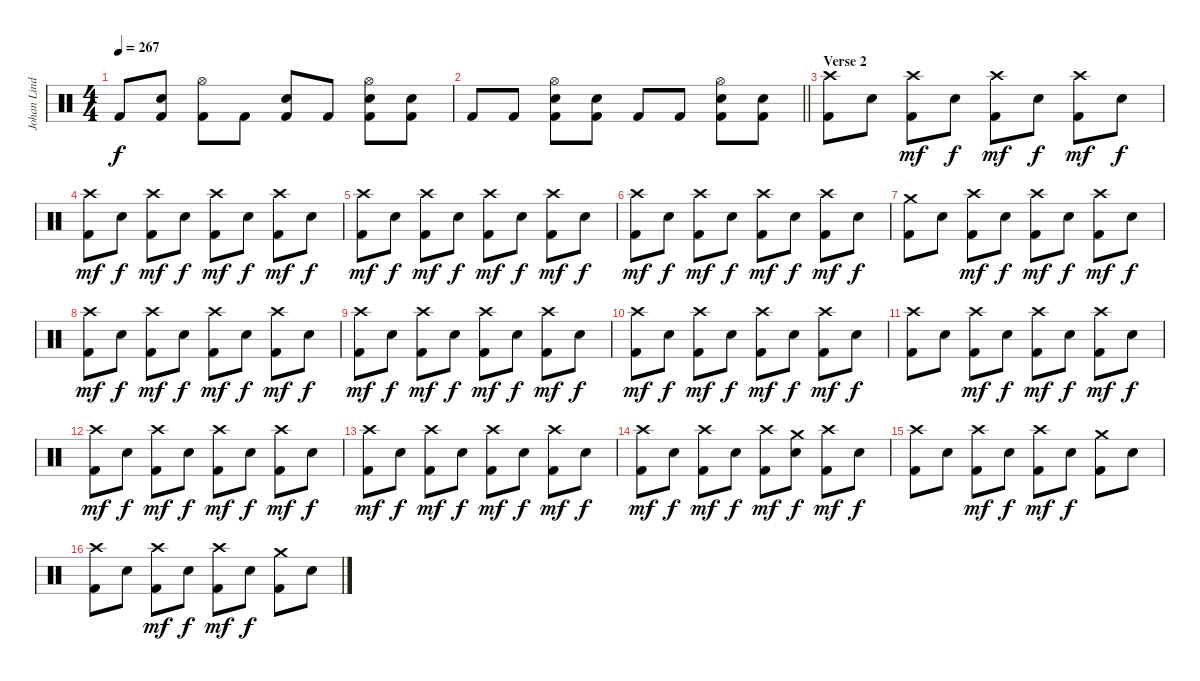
\track ("Johan Lindstrand" "Johan Lind") {instrument percussion}
\staff {score}
\articulation defaults
\ts (4 4)
\tempo 267
\clef neutral
\ks c "Kick (hit) 2".8{dy f}
("Electric Snare (hit)" "Kick (hit) 2").8 ("Hi-Hat (open)" "Kick (hit) 2").8 "Kick (hit) 2".8 ("Electric Snare (hit)" "Kick (hit) 2").8 "Kick (hit) 2".8 ("Hi-Hat (open)" "Electric Snare (hit)" "Kick (hit) 2").8 ("Electric Snare (hit)" "Kick (hit) 2").8 |
\barLineRight lightlight "Kick (hit) 2".8 "Kick (hit) 2".8
("Hi-Hat (open)" "Electric Snare (hit)" "Kick (hit) 2").8 ("Electric Snare (hit)" "Kick (hit) 2").8 "Kick (hit) 2".8 "Kick (hit) 2".8 ("Hi-Hat (open)" "Electric Snare (hit)" "Kick (hit) 2").8 ("Electric Snare (hit)" "Kick (hit) 2").8 |
\section ("" "Verse 2")
("Crash high (hit)" "Kick (hit) 2").8 "Electric Snare (hit)".8 ("Crash high (hit)" "Kick (hit) 2").8{dy mf} "Electric Snare (hit)".8{dy f} ("Crash high (hit)" "Kick (hit) 2").8{dy mf} "Electric Snare (hit)".8{dy f} ("Crash high (hit)" "Kick (hit) 2").8{dy mf} "Electric Snare (hit)".8{dy f} |
("Crash high (hit)" "Kick (hit) 2").8{dy mf} "Electric Snare (hit)".8{dy f} ("Crash high (hit)" "Kick (hit) 2").8{dy mf} "Electric Snare (hit)".8{dy f} ("Crash high (hit)" "Kick (hit) 2").8{dy mf} "Electric Snare (hit)".8{dy f} ("Crash high (hit)" "Kick (hit) 2").8{dy mf} "Electric Snare (hit)".8{dy f} |
("Crash high (hit)" "Kick (hit) 2").8{dy mf} "Electric Snare (hit)".8{dy f} ("Crash high (hit)" "Kick (hit) 2").8{dy mf} "Electric Snare (hit)".8{dy f} ("Crash high (hit)" "Kick (hit) 2").8{dy mf} "Electric Snare (hit)".8{dy f} ("Crash high (hit)" "Kick (hit) 2").8{dy mf} "Electric Snare (hit)".8{dy f} |
("Crash high (hit)" "Kick (hit) 2").8{dy mf} "Electric Snare (hit)".8{dy f} ("Crash high (hit)" "Kick (hit) 2").8{dy mf} "Electric Snare (hit)".8{dy f} ("Crash high (hit)" "Kick (hit) 2").8{dy mf} "Electric Snare (hit)".8{dy f} ("Crash high (hit)" "Kick (hit) 2").8{dy mf} "Electric Snare (hit)".8{dy f} |
("Crash medium (hit)" "Kick (hit) 2").8 "Electric Snare (hit)".8 ("Crash high (hit)" "Kick (hit) 2").8{dy mf} "Electric Snare (hit)".8{dy f} ("Crash high (hit)" "Kick (hit) 2").8{dy mf} "Electric Snare (hit)".8{dy f} ("Crash high (hit)" "Kick (hit) 2").8{dy mf} "Electric Snare (hit)".8{dy f} |
("Crash high (hit)" "Kick (hit) 2").8{dy mf} "Electric Snare (hit)".8{dy f} ("Crash high (hit)" "Kick (hit) 2").8{dy mf} "Electric Snare (hit)".8{dy f} ("Crash high (hit)" "Kick (hit) 2").8{dy mf} "Electric Snare (hit)".8{dy f} ("Crash high (hit)" "Kick (hit) 2").8{dy mf} "Electric Snare (hit)".8{dy f} |
("Crash high (hit)" "Kick (hit) 2").8{dy mf} "Electric Snare (hit)".8{dy f} ("Crash high (hit)" "Kick (hit) 2").8{dy mf} "Electric Snare (hit)".8{dy f} ("Crash high (hit)" "Kick (hit) 2").8{dy mf} "Electric Snare (hit)".8{dy f} ("Crash high (hit)" "Kick (hit) 2").8{dy mf} "Electric Snare (hit)".8{dy f} |
("Crash high (hit)" "Kick (hit) 2").8{dy mf} "Electric Snare (hit)".8{dy f} ("Crash high (hit)" "Kick (hit) 2").8{dy mf} "Electric Snare (hit)".8{dy f} ("Crash high (hit)" "Kick (hit) 2").8{dy mf} "Electric Snare (hit)".8{dy f} ("Crash high (hit)" "Kick (hit) 2").8{dy mf} "Electric Snare (hit)".8{dy f} |
("Crash high (hit)" "Kick (hit) 2").8 "Electric Snare (hit)".8 ("Crash high (hit)" "Kick (hit) 2").8{dy mf} "Electric Snare (hit)".8{dy f} ("Crash high (hit)" "Kick (hit) 2").8{dy mf} "Electric Snare (hit)".8{dy f} ("Crash high (hit)" "Kick (hit) 2").8{dy mf} "Electric Snare (hit)".8{dy f} |
("Crash high (hit)" "Kick (hit) 2").8{dy mf} "Electric Snare (hit)".8{dy f} ("Crash high (hit)" "Kick (hit) 2").8{dy mf} "Electric Snare (hit)".8{dy f} ("Crash high (hit)" "Kick (hit) 2").8{dy mf} "Electric Snare (hit)".8{dy f} ("Crash high (hit)" "Kick (hit) 2").8{dy mf} "Electric Snare (hit)".8{dy f} |
("Crash high (hit)" "Kick (hit) 2").8{dy mf} "Electric Snare (hit)".8{dy f} ("Crash high (hit)" "Kick (hit) 2").8{dy mf} "Electric Snare (hit)".8{dy f} ("Crash high (hit)" "Kick (hit) 2").8{dy mf} "Electric Snare (hit)".8{dy f} ("Crash high (hit)" "Kick (hit) 2").8{dy mf} "Electric Snare (hit)".8{dy f} |
("Crash high (hit)" "Kick (hit) 2").8{dy mf} "Electric Snare (hit)".8{dy f} ("Crash high (hit)" "Kick (hit) 2").8{dy mf} "Electric Snare (hit)".8{dy f} ("Crash high (hit)" "Kick (hit) 2").8{dy mf} ("Crash medium (hit)" "Electric Snare (hit)").8{dy f} ("Crash high (hit)" "Kick (hit) 2").8{dy mf} "Electric Snare (hit)".8{dy f} |
("Crash high (hit)" "Kick (hit) 2").8 "Electric Snare (hit)".8 ("Crash high (hit)" "Kick (hit) 2").8{dy mf} "Electric Snare (hit)".8{dy f} ("Crash high (hit)" "Kick (hit) 2").8{dy mf} "Electric Snare (hit)".8{dy f} ("Crash medium (hit)" "Kick (hit) 2").8 "Electric Snare (hit)".8 |
("Crash high (hit)" "Kick (hit) 2").8 "Electric Snare (hit)".8 ("Crash high (hit)" "Kick (hit) 2").8{dy mf} "Electric Snare (hit)".8{dy f} ("Crash high (hit)" "Kick (hit) 2").8{dy mf} "Electric Snare (hit)".8{dy f} ("Crash medium (hit)" "Kick (hit) 2").8 "Electric Snare (hit)".8
